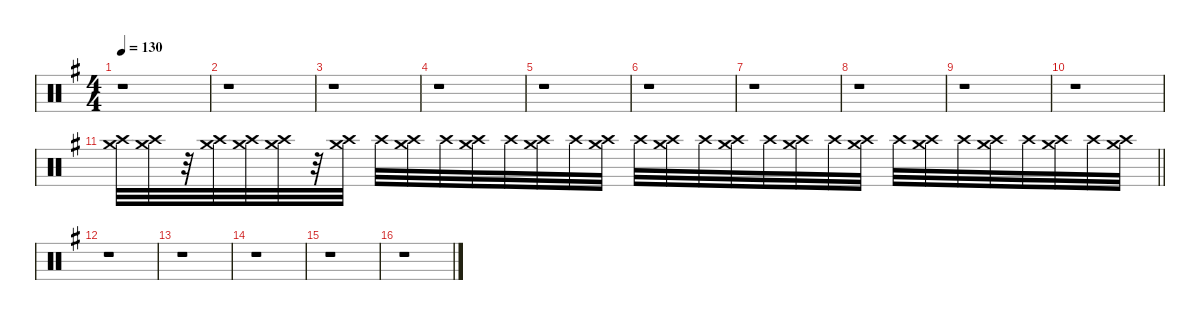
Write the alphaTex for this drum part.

\defaultSystemsLayout 4
\hideDynamics
\bracketExtendMode nobrackets
\singleTrackTrackNamePolicy hidden
\multiTrackTrackNamePolicy hidden
\otherSystemsTrackNameOrientation horizontal
\track ("Percussioni" "drm.") {instrument percussion}
\staff {score}
\articulation defaults
\ts (4 4)
\tempo 130
\clef neutral
\ks eminor
r.1{dy f beam Down} |
r.1{beam Down} |
r.1{beam Down} |
r.1{beam Down} |
r.1{beam Down} |
r.1{beam Down} |
r.1{beam Down} |
r.1{beam Down} |
r.1{beam Down} |
r.1{beam Down} |
\barLineRight lightlight
("Crash high (hit)"{acc forcenatural} "Crash medium (hit)"{acc forcenatural}).32{beam Down} ("Crash high (hit)"{acc forcenatural} "Crash medium (hit)"{acc forcenatural}).32{beam Down} r.32{beam Down} ("Crash high (hit)"{acc forcenatural} "Crash medium (hit)"{acc forcenatural}).32{beam Down} ("Crash high (hit)"{acc forcenatural} "Crash medium (hit)"{acc forcenatural}).32{beam Down} ("Crash high (hit)"{acc forcenatural} "Crash medium (hit)"{acc forcenatural}).32{beam Down} r.32{beam Down} ("Crash high (hit)"{acc forcenatural} "Crash medium (hit)"{acc forcenatural}).32{beam Down} "Crash high (hit)"{acc forcenatural}.32{beam Down} ("Crash high (hit)"{acc forcenatural} "Crash medium (hit)"{acc forcenatural}).32{beam Down} "Crash high (hit)"{acc forcenatural}.32{beam Down} ("Crash high (hit)"{acc forcenatural} "Crash medium (hit)"{acc forcenatural}).32{beam Down} "Crash high (hit)"{acc forcenatural}.32{beam Down} ("Crash high (hit)"{acc forcenatural} "Crash medium (hit)"{acc forcenatural}).32{beam Down} "Crash high (hit)"{acc forcenatural}.32{beam Down} ("Crash high (hit)"{acc forcenatural} "Crash medium (hit)"{acc forcenatural}).32{beam Down} "Crash high (hit)"{acc forcenatural}.32{beam Down} ("Crash high (hit)"{acc forcenatural} "Crash medium (hit)"{acc forcenatural}).32{beam Down} "Crash high (hit)"{acc forcenatural}.32{beam Down} ("Crash high (hit)"{acc forcenatural} "Crash medium (hit)"{acc forcenatural}).32{beam Down} "Crash high (hit)"{acc forcenatural}.32{beam Down} ("Crash high (hit)"{acc forcenatural} "Crash medium (hit)"{acc forcenatural}).32{beam Down} "Crash high (hit)"{acc forcenatural}.32{beam Down} ("Crash high (hit)"{acc forcenatural} "Crash medium (hit)"{acc forcenatural}).32{beam Down} "Crash high (hit)"{acc forcenatural}.32{beam Down} ("Crash high (hit)"{acc forcenatural} "Crash medium (hit)"{acc forcenatural}).32{beam Down} "Crash high (hit)"{acc forcenatural}.32{beam Down} ("Crash high (hit)"{acc forcenatural} "Crash medium (hit)"{acc forcenatural}).32{beam Down} "Crash high (hit)"{acc forcenatural}.32{beam Down} ("Crash high (hit)"{acc forcenatural} "Crash medium (hit)"{acc forcenatural}).32{beam Down} "Crash high (hit)"{acc forcenatural}.32{beam Down} ("Crash high (hit)"{acc forcenatural} "Crash medium (hit)"{acc forcenatural}).32{beam Down} |
r.1{beam Down} |
r.1{beam Down} |
r.1{beam Down} |
r.1{beam Down} |
r.1{beam Down}
